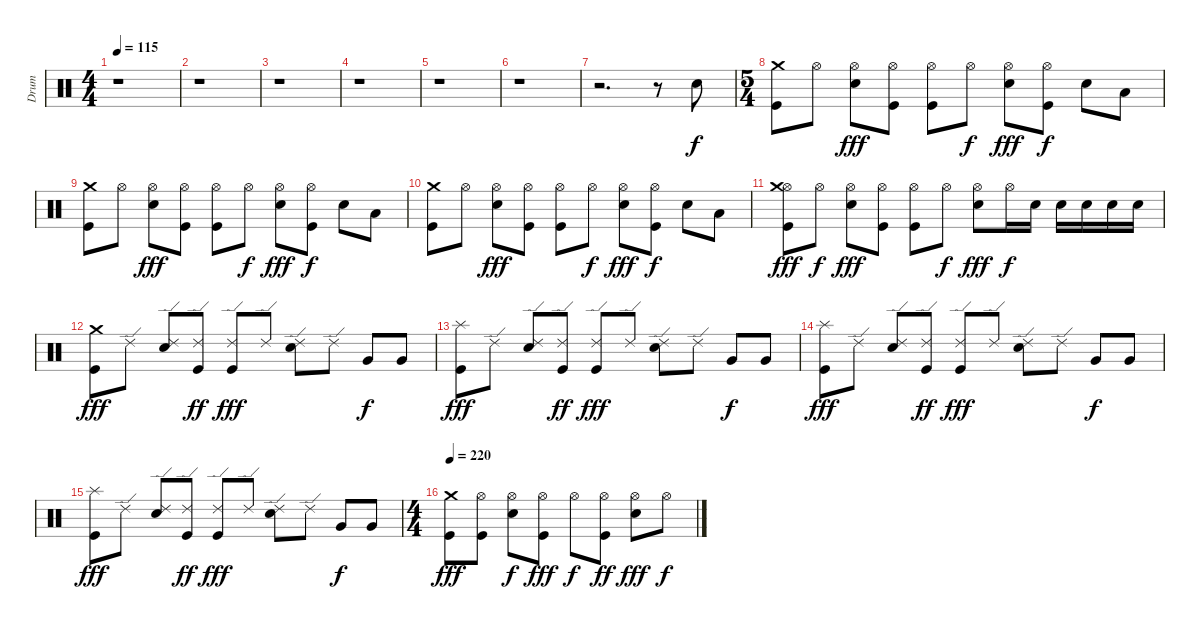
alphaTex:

\track ("Drum" "Drum") {instrument percussion}
\staff {score}
\articulation defaults
\ts (4 4)
\tempo 115
\clef neutral
\ks c
r.1{dy f} |
r.1 |
r.1 |
r.1 |
r.1 |
r.1 |
r.2{d} r.8 "Snare (hit) 2".8 |
\ts (5 4)
("Crash medium (hit)" "Kick (hit)").8 "Hi-Hat (open)".8 ("Hi-Hat (open)" "Snare (hit) 2").8{dy fff} ("Hi-Hat (open)" "Kick (hit)").8 ("Hi-Hat (open)" "Kick (hit)").8 "Hi-Hat (open)".8{dy f} ("Hi-Hat (open)" "Snare (hit) 2").8{dy fff} ("Hi-Hat (open)" "Kick (hit)").8{dy f} "Snare (hit) 2".8 "Low Floor Tom (hit)".8 |
("Crash medium (hit)" "Kick (hit)").8 "Hi-Hat (open)".8 ("Hi-Hat (open)" "Snare (hit) 2").8{dy fff} ("Hi-Hat (open)" "Kick (hit)").8 ("Hi-Hat (open)" "Kick (hit)").8 "Hi-Hat (open)".8{dy f} ("Hi-Hat (open)" "Snare (hit) 2").8{dy fff} ("Hi-Hat (open)" "Kick (hit)").8{dy f} "Snare (hit) 2".8 "Low Floor Tom (hit)".8 |
("Crash medium (hit)" "Kick (hit)").8 "Hi-Hat (open)".8 ("Hi-Hat (open)" "Snare (hit) 2").8{dy fff} ("Hi-Hat (open)" "Kick (hit)").8 ("Hi-Hat (open)" "Kick (hit)").8 "Hi-Hat (open)".8{dy f} ("Hi-Hat (open)" "Snare (hit) 2").8{dy fff} ("Hi-Hat (open)" "Kick (hit)").8{dy f} "Snare (hit) 2".8 "Low Floor Tom (hit)".8 |
("Hi-Hat (open)" "Crash medium (hit)" "Kick (hit)").8{dy fff} "Hi-Hat (open)".8{dy f} ("Hi-Hat (open)" "Snare (hit) 2").8{dy fff} ("Hi-Hat (open)" "Kick (hit)").8 ("Hi-Hat (open)" "Kick (hit)").8 "Hi-Hat (open)".8{dy f} ("Hi-Hat (open)" "Snare (hit) 2").8{dy fff} "Hi-Hat (open)".16{dy f} "Snare (hit) 2".16 "Snare (hit) 2".16 "Snare (hit) 2".16 "Snare (hit) 2".16 "Snare (hit) 2".16 |
("Crash medium (hit)" "Kick (hit)").8{dy fff} "Ride (edge) 2".8 ("Ride (edge) 2" "Snare (hit) 2").8 ("Ride (edge) 2" "Kick (hit)").8{dy ff} ("Ride (edge) 2" "Kick (hit)").8{dy fff} "Ride (edge) 2".8 ("Ride (edge) 2" "Snare (hit) 2").8 "Ride (edge) 2".8 "Very Low Tom (hit)".8{dy f} "Very Low Tom (hit)".8 |
("Splash (hit)" "Kick (hit)").8{dy fff} "Ride (edge) 2".8 ("Ride (edge) 2" "Snare (hit) 2").8 ("Ride (edge) 2" "Kick (hit)").8{dy ff} ("Ride (edge) 2" "Kick (hit)").8{dy fff} "Ride (edge) 2".8 ("Ride (edge) 2" "Snare (hit) 2").8 "Ride (edge) 2".8 "Very Low Tom (hit)".8{dy f} "Very Low Tom (hit)".8 |
("Splash (hit)" "Kick (hit)").8{dy fff} "Ride (edge) 2".8 ("Ride (edge) 2" "Snare (hit) 2").8 ("Ride (edge) 2" "Kick (hit)").8{dy ff} ("Ride (edge) 2" "Kick (hit)").8{dy fff} "Ride (edge) 2".8 ("Ride (edge) 2" "Snare (hit) 2").8 "Ride (edge) 2".8 "Very Low Tom (hit)".8{dy f} "Very Low Tom (hit)".8 |
("Splash (hit)" "Kick (hit)").8{dy fff} "Ride (edge) 2".8 ("Ride (edge) 2" "Snare (hit) 2").8 ("Ride (edge) 2" "Kick (hit)").8{dy ff} ("Ride (edge) 2" "Kick (hit)").8{dy fff} "Ride (edge) 2".8 ("Ride (edge) 2" "Snare (hit) 2").8 "Ride (edge) 2".8 "Very Low Tom (hit)".8{dy f} "Very Low Tom (hit)".8 |
\ts (4 4)
\tempo 220
("Crash medium (hit)" "Kick (hit)").8{dy fff} ("Hi-Hat (open)" "Kick (hit)").8 ("Hi-Hat (open)" "Snare (hit) 2").8{dy f} ("Hi-Hat (open)" "Kick (hit)").8{dy fff} "Hi-Hat (open)".8{dy f} ("Hi-Hat (open)" "Kick (hit)").8{dy ff} ("Hi-Hat (open)" "Snare (hit) 2").8{dy fff} "Hi-Hat (open)".8{dy f}
